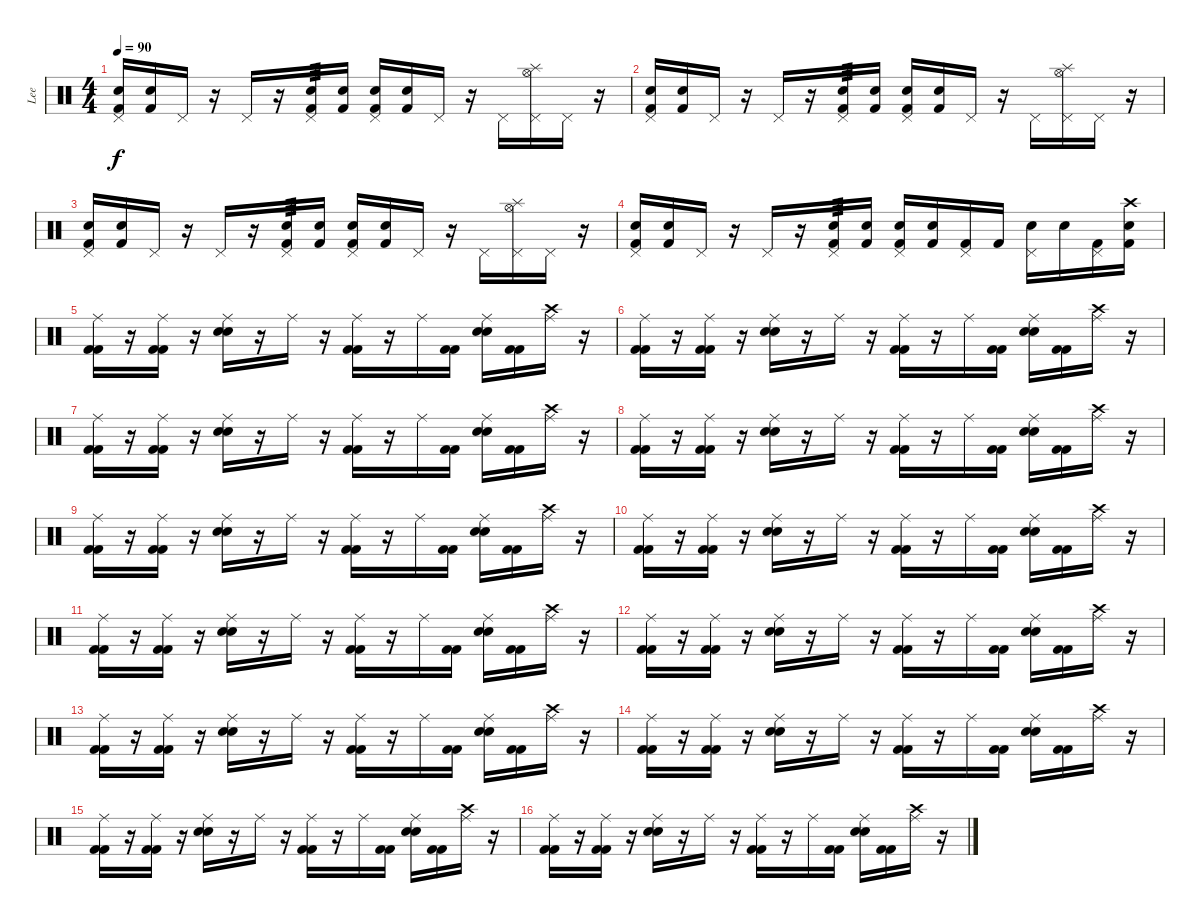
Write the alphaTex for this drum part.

\track ("Lee" "Lee") {instrument percussion}
\staff {score}
\articulation defaults
\ts (4 4)
\tempo 90
\clef neutral
\ks c
("Pedal Hi-Hat (hit)" "Snare (hit) 2" "Kick (hit) 2").16{dy f} ("Snare (hit) 2" "Kick (hit) 2").16 "Pedal Hi-Hat (hit)".16 r.16 "Pedal Hi-Hat (hit)".16 r.16 ("Pedal Hi-Hat (hit)" "Snare (hit) 2" "Kick (hit) 2").16{tp 3} ("Snare (hit) 2" "Kick (hit) 2").16 ("Pedal Hi-Hat (hit)" "Snare (hit) 2" "Kick (hit) 2").16 ("Snare (hit) 2" "Kick (hit) 2").16 "Pedal Hi-Hat (hit)".16 r.16 "Pedal Hi-Hat (hit)".16 ("Pedal Hi-Hat (hit)" "Splash (hit)" "Hi-Hat (open)").16 "Pedal Hi-Hat (hit)".16 r.16 |
("Pedal Hi-Hat (hit)" "Snare (hit) 2" "Kick (hit) 2").16 ("Snare (hit) 2" "Kick (hit) 2").16 "Pedal Hi-Hat (hit)".16 r.16 "Pedal Hi-Hat (hit)".16 r.16 ("Pedal Hi-Hat (hit)" "Snare (hit) 2" "Kick (hit) 2").16{tp 3} ("Snare (hit) 2" "Kick (hit) 2").16 ("Pedal Hi-Hat (hit)" "Snare (hit) 2" "Kick (hit) 2").16 ("Snare (hit) 2" "Kick (hit) 2").16 "Pedal Hi-Hat (hit)".16 r.16 "Pedal Hi-Hat (hit)".16 ("Pedal Hi-Hat (hit)" "Splash (hit)" "Hi-Hat (open)").16 "Pedal Hi-Hat (hit)".16 r.16 |
("Pedal Hi-Hat (hit)" "Snare (hit) 2" "Kick (hit) 2").16 ("Snare (hit) 2" "Kick (hit) 2").16 "Pedal Hi-Hat (hit)".16 r.16 "Pedal Hi-Hat (hit)".16 r.16 ("Pedal Hi-Hat (hit)" "Snare (hit) 2" "Kick (hit) 2").16{tp 3} ("Snare (hit) 2" "Kick (hit) 2").16 ("Pedal Hi-Hat (hit)" "Snare (hit) 2" "Kick (hit) 2").16 ("Snare (hit) 2" "Kick (hit) 2").16 "Pedal Hi-Hat (hit)".16 r.16 "Pedal Hi-Hat (hit)".16 ("Pedal Hi-Hat (hit)" "Splash (hit)" "Hi-Hat (open)").16 "Pedal Hi-Hat (hit)".16 r.16 |
("Pedal Hi-Hat (hit)" "Snare (hit) 2" "Kick (hit) 2").16 ("Snare (hit) 2" "Kick (hit) 2").16 "Pedal Hi-Hat (hit)".16 r.16 "Pedal Hi-Hat (hit)".16 r.16 ("Pedal Hi-Hat (hit)" "Snare (hit) 2" "Kick (hit) 2").16{tp 3} ("Snare (hit) 2" "Kick (hit) 2").16 ("Pedal Hi-Hat (hit)" "Snare (hit) 2" "Kick (hit) 2").16 ("Snare (hit) 2" "Kick (hit) 2").16 ("Pedal Hi-Hat (hit)" "Kick (hit) 2").16 "Kick (hit) 2".16 ("Pedal Hi-Hat (hit)" "Snare (hit) 2").16 "Snare (hit) 2".16 ("Pedal Hi-Hat (hit)" "Kick (hit) 2").16 ("Crash high (hit)" "Snare (hit) 2" "Kick (hit) 2").16 |
("Kick (hit) 2" "Kick (hit) 2" "Ride (middle)").16 r.16 ("Kick (hit) 2" "Kick (hit) 2" "Ride (middle)").16 r.16 ("Snare (hit) 2" "Snare (hit) 2" "Ride (middle)").16 r.16 "Ride (middle)".16 r.16 ("Kick (hit) 2" "Kick (hit) 2" "Ride (middle)").16 r.16 "Ride (middle)".16 ("Kick (hit) 2" "Kick (hit) 2").16 ("Snare (hit) 2" "Snare (hit) 2" "Ride (middle)").16 ("Kick (hit) 2" "Kick (hit) 2").16 ("Crash high (hit)" "Ride (middle)").16 r.16 |
("Kick (hit) 2" "Kick (hit) 2" "Ride (middle)").16 r.16 ("Kick (hit) 2" "Kick (hit) 2" "Ride (middle)").16 r.16 ("Snare (hit) 2" "Snare (hit) 2" "Ride (middle)").16 r.16 "Ride (middle)".16 r.16 ("Kick (hit) 2" "Kick (hit) 2" "Ride (middle)").16 r.16 "Ride (middle)".16 ("Kick (hit) 2" "Kick (hit) 2").16 ("Snare (hit) 2" "Snare (hit) 2" "Ride (middle)").16 ("Kick (hit) 2" "Kick (hit) 2").16 ("Crash high (hit)" "Ride (middle)").16 r.16 |
("Kick (hit) 2" "Kick (hit) 2" "Ride (middle)").16 r.16 ("Kick (hit) 2" "Kick (hit) 2" "Ride (middle)").16 r.16 ("Snare (hit) 2" "Snare (hit) 2" "Ride (middle)").16 r.16 "Ride (middle)".16 r.16 ("Kick (hit) 2" "Kick (hit) 2" "Ride (middle)").16 r.16 "Ride (middle)".16 ("Kick (hit) 2" "Kick (hit) 2").16 ("Snare (hit) 2" "Snare (hit) 2" "Ride (middle)").16 ("Kick (hit) 2" "Kick (hit) 2").16 ("Crash high (hit)" "Ride (middle)").16 r.16 |
("Kick (hit) 2" "Kick (hit) 2" "Ride (middle)").16 r.16 ("Kick (hit) 2" "Kick (hit) 2" "Ride (middle)").16 r.16 ("Snare (hit) 2" "Snare (hit) 2" "Ride (middle)").16 r.16 "Ride (middle)".16 r.16 ("Kick (hit) 2" "Kick (hit) 2" "Ride (middle)").16 r.16 "Ride (middle)".16 ("Kick (hit) 2" "Kick (hit) 2").16 ("Snare (hit) 2" "Snare (hit) 2" "Ride (middle)").16 ("Kick (hit) 2" "Kick (hit) 2").16 ("Crash high (hit)" "Ride (middle)").16 r.16 |
("Kick (hit) 2" "Kick (hit) 2" "Ride (middle)").16 r.16 ("Kick (hit) 2" "Kick (hit) 2" "Ride (middle)").16 r.16 ("Snare (hit) 2" "Snare (hit) 2" "Ride (middle)").16 r.16 "Ride (middle)".16 r.16 ("Kick (hit) 2" "Kick (hit) 2" "Ride (middle)").16 r.16 "Ride (middle)".16 ("Kick (hit) 2" "Kick (hit) 2").16 ("Snare (hit) 2" "Snare (hit) 2" "Ride (middle)").16 ("Kick (hit) 2" "Kick (hit) 2").16 ("Crash high (hit)" "Ride (middle)").16 r.16 |
("Kick (hit) 2" "Kick (hit) 2" "Ride (middle)").16 r.16 ("Kick (hit) 2" "Kick (hit) 2" "Ride (middle)").16 r.16 ("Snare (hit) 2" "Snare (hit) 2" "Ride (middle)").16 r.16 "Ride (middle)".16 r.16 ("Kick (hit) 2" "Kick (hit) 2" "Ride (middle)").16 r.16 "Ride (middle)".16 ("Kick (hit) 2" "Kick (hit) 2").16 ("Snare (hit) 2" "Snare (hit) 2" "Ride (middle)").16 ("Kick (hit) 2" "Kick (hit) 2").16 ("Crash high (hit)" "Ride (middle)").16 r.16 |
("Kick (hit) 2" "Kick (hit) 2" "Ride (middle)").16 r.16 ("Kick (hit) 2" "Kick (hit) 2" "Ride (middle)").16 r.16 ("Snare (hit) 2" "Snare (hit) 2" "Ride (middle)").16 r.16 "Ride (middle)".16 r.16 ("Kick (hit) 2" "Kick (hit) 2" "Ride (middle)").16 r.16 "Ride (middle)".16 ("Kick (hit) 2" "Kick (hit) 2").16 ("Snare (hit) 2" "Snare (hit) 2" "Ride (middle)").16 ("Kick (hit) 2" "Kick (hit) 2").16 ("Crash high (hit)" "Ride (middle)").16 r.16 |
("Kick (hit) 2" "Kick (hit) 2" "Ride (middle)").16 r.16 ("Kick (hit) 2" "Kick (hit) 2" "Ride (middle)").16 r.16 ("Snare (hit) 2" "Snare (hit) 2" "Ride (middle)").16 r.16 "Ride (middle)".16 r.16 ("Kick (hit) 2" "Kick (hit) 2" "Ride (middle)").16 r.16 "Ride (middle)".16 ("Kick (hit) 2" "Kick (hit) 2").16 ("Snare (hit) 2" "Snare (hit) 2" "Ride (middle)").16 ("Kick (hit) 2" "Kick (hit) 2").16 ("Crash high (hit)" "Ride (middle)").16 r.16 |
("Kick (hit) 2" "Kick (hit) 2" "Ride (middle)").16 r.16 ("Kick (hit) 2" "Kick (hit) 2" "Ride (middle)").16 r.16 ("Snare (hit) 2" "Snare (hit) 2" "Ride (middle)").16 r.16 "Ride (middle)".16 r.16 ("Kick (hit) 2" "Kick (hit) 2" "Ride (middle)").16 r.16 "Ride (middle)".16 ("Kick (hit) 2" "Kick (hit) 2").16 ("Snare (hit) 2" "Snare (hit) 2" "Ride (middle)").16 ("Kick (hit) 2" "Kick (hit) 2").16 ("Crash high (hit)" "Ride (middle)").16 r.16 |
("Kick (hit) 2" "Kick (hit) 2" "Ride (middle)").16 r.16 ("Kick (hit) 2" "Kick (hit) 2" "Ride (middle)").16 r.16 ("Snare (hit) 2" "Snare (hit) 2" "Ride (middle)").16 r.16 "Ride (middle)".16 r.16 ("Kick (hit) 2" "Kick (hit) 2" "Ride (middle)").16 r.16 "Ride (middle)".16 ("Kick (hit) 2" "Kick (hit) 2").16 ("Snare (hit) 2" "Snare (hit) 2" "Ride (middle)").16 ("Kick (hit) 2" "Kick (hit) 2").16 ("Crash high (hit)" "Ride (middle)").16 r.16 |
("Kick (hit) 2" "Kick (hit) 2" "Ride (middle)").16 r.16 ("Kick (hit) 2" "Kick (hit) 2" "Ride (middle)").16 r.16 ("Snare (hit) 2" "Snare (hit) 2" "Ride (middle)").16 r.16 "Ride (middle)".16 r.16 ("Kick (hit) 2" "Kick (hit) 2" "Ride (middle)").16 r.16 "Ride (middle)".16 ("Kick (hit) 2" "Kick (hit) 2").16 ("Snare (hit) 2" "Snare (hit) 2" "Ride (middle)").16 ("Kick (hit) 2" "Kick (hit) 2").16 ("Crash high (hit)" "Ride (middle)").16 r.16 |
("Kick (hit) 2" "Kick (hit) 2" "Ride (middle)").16 r.16 ("Kick (hit) 2" "Kick (hit) 2" "Ride (middle)").16 r.16 ("Snare (hit) 2" "Snare (hit) 2" "Ride (middle)").16 r.16 "Ride (middle)".16 r.16 ("Kick (hit) 2" "Kick (hit) 2" "Ride (middle)").16 r.16 "Ride (middle)".16 ("Kick (hit) 2" "Kick (hit) 2").16 ("Snare (hit) 2" "Snare (hit) 2" "Ride (middle)").16 ("Kick (hit) 2" "Kick (hit) 2").16 ("Crash high (hit)" "Ride (middle)").16 r.16
